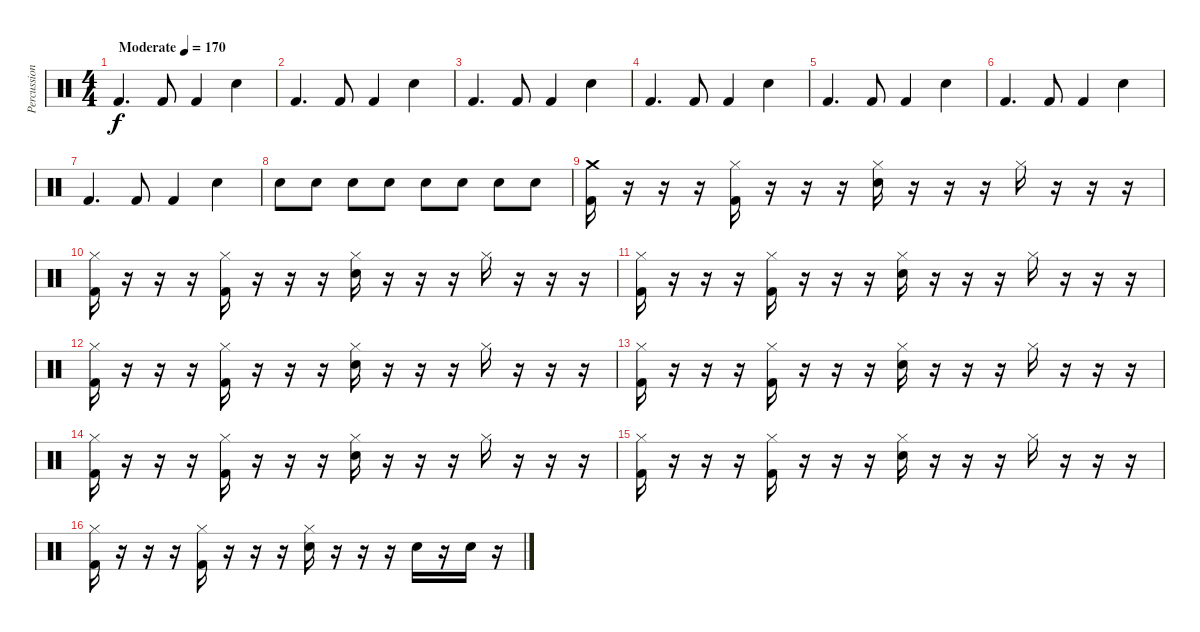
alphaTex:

\track ("Percussion" "Percussion") {instrument percussion}
\staff {score}
\articulation defaults
\ts (4 4)
\tempo (170 "Moderate")
\clef neutral
\ks c "Kick (hit) 2".4{d dy f} "Kick (hit) 2".8 "Kick (hit) 2".4 "Snare (hit) 2".4
|
"Kick (hit) 2".4{d} "Kick (hit) 2".8 "Kick (hit) 2".4 "Snare (hit) 2".4 |
"Kick (hit) 2".4{d} "Kick (hit) 2".8 "Kick (hit) 2".4 "Snare (hit) 2".4 |
"Kick (hit) 2".4{d} "Kick (hit) 2".8 "Kick (hit) 2".4 "Snare (hit) 2".4 |
"Kick (hit) 2".4{d} "Kick (hit) 2".8 "Kick (hit) 2".4 "Snare (hit) 2".4 |
"Kick (hit) 2".4{d} "Kick (hit) 2".8 "Kick (hit) 2".4 "Snare (hit) 2".4 |
"Kick (hit) 2".4{d} "Kick (hit) 2".8 "Kick (hit) 2".4 "Snare (hit) 2".4 |
"Snare (hit) 2".8 "Snare (hit) 2".8 "Snare (hit) 2".8 "Snare (hit) 2".8 "Snare (hit) 2".8 "Snare (hit) 2".8 "Snare (hit) 2".8 "Snare (hit) 2".8 |
("Crash medium (hit)" "Kick (hit) 2").16 r.16 r.16 r.16 ("Hi-Hat (closed)" "Kick (hit) 2").16 r.16 r.16 r.16 ("Hi-Hat (closed)" "Snare (hit) 2").16 r.16 r.16 r.16 "Hi-Hat (closed)".16 r.16 r.16 r.16 |
("Hi-Hat (closed)" "Kick (hit) 2").16 r.16 r.16 r.16 ("Hi-Hat (closed)" "Kick (hit) 2").16 r.16 r.16 r.16 ("Hi-Hat (closed)" "Snare (hit) 2").16 r.16 r.16 r.16 "Hi-Hat (closed)".16 r.16 r.16 r.16 |
("Hi-Hat (closed)" "Kick (hit) 2").16 r.16 r.16 r.16 ("Hi-Hat (closed)" "Kick (hit) 2").16 r.16 r.16 r.16 ("Hi-Hat (closed)" "Snare (hit) 2").16 r.16 r.16 r.16 "Hi-Hat (closed)".16 r.16 r.16 r.16 |
("Hi-Hat (closed)" "Kick (hit) 2").16 r.16 r.16 r.16 ("Hi-Hat (closed)" "Kick (hit) 2").16 r.16 r.16 r.16 ("Hi-Hat (closed)" "Snare (hit) 2").16 r.16 r.16 r.16 "Hi-Hat (closed)".16 r.16 r.16 r.16 |
("Hi-Hat (closed)" "Kick (hit) 2").16 r.16 r.16 r.16 ("Hi-Hat (closed)" "Kick (hit) 2").16 r.16 r.16 r.16 ("Hi-Hat (closed)" "Snare (hit) 2").16 r.16 r.16 r.16 "Hi-Hat (closed)".16 r.16 r.16 r.16 |
("Hi-Hat (closed)" "Kick (hit) 2").16 r.16 r.16 r.16 ("Hi-Hat (closed)" "Kick (hit) 2").16 r.16 r.16 r.16 ("Hi-Hat (closed)" "Snare (hit) 2").16 r.16 r.16 r.16 "Hi-Hat (closed)".16 r.16 r.16 r.16 |
("Hi-Hat (closed)" "Kick (hit) 2").16 r.16 r.16 r.16 ("Hi-Hat (closed)" "Kick (hit) 2").16 r.16 r.16 r.16 ("Hi-Hat (closed)" "Snare (hit) 2").16 r.16 r.16 r.16 "Hi-Hat (closed)".16 r.16 r.16 r.16 |
("Hi-Hat (closed)" "Kick (hit) 2").16 r.16 r.16 r.16 ("Hi-Hat (closed)" "Kick (hit) 2").16 r.16 r.16 r.16 ("Hi-Hat (closed)" "Snare (hit) 2").16 r.16 r.16 r.16 "Snare (hit) 2".16 r.16 "Snare (hit) 2".16 r.16
